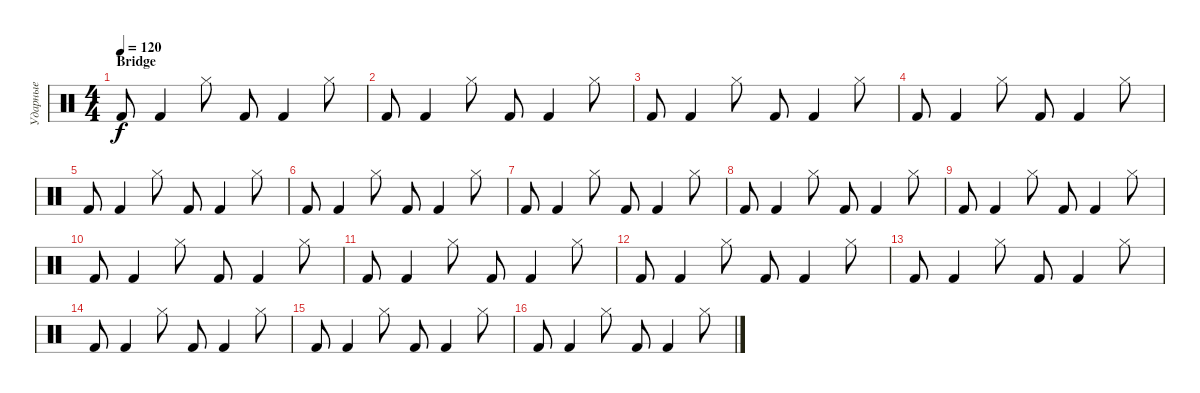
\track ("Ударные" "Ударные") {instrument percussion}
\staff {score}
\articulation defaults
\ts (4 4)
\section ("" "Bridge")
\tempo 120
\clef neutral
\ks c "Kick (hit) 2".8{dy f} "Kick (hit) 2".4 "Hi-Hat (closed)".8 "Kick (hit) 2".8 "Kick (hit) 2".4 "Hi-Hat (closed)".8
|
"Kick (hit) 2".8 "Kick (hit) 2".4 "Hi-Hat (closed)".8 "Kick (hit) 2".8 "Kick (hit) 2".4 "Hi-Hat (closed)".8 |
"Kick (hit) 2".8 "Kick (hit) 2".4 "Hi-Hat (closed)".8 "Kick (hit) 2".8 "Kick (hit) 2".4 "Hi-Hat (closed)".8 |
"Kick (hit) 2".8 "Kick (hit) 2".4 "Hi-Hat (closed)".8 "Kick (hit) 2".8 "Kick (hit) 2".4 "Hi-Hat (closed)".8 |
"Kick (hit) 2".8 "Kick (hit) 2".4 "Hi-Hat (closed)".8 "Kick (hit) 2".8 "Kick (hit) 2".4 "Hi-Hat (closed)".8 |
"Kick (hit) 2".8 "Kick (hit) 2".4 "Hi-Hat (closed)".8 "Kick (hit) 2".8 "Kick (hit) 2".4 "Hi-Hat (closed)".8 |
"Kick (hit) 2".8 "Kick (hit) 2".4 "Hi-Hat (closed)".8 "Kick (hit) 2".8 "Kick (hit) 2".4 "Hi-Hat (closed)".8 |
"Kick (hit) 2".8 "Kick (hit) 2".4 "Hi-Hat (closed)".8 "Kick (hit) 2".8 "Kick (hit) 2".4 "Hi-Hat (closed)".8 |
"Kick (hit) 2".8 "Kick (hit) 2".4 "Hi-Hat (closed)".8 "Kick (hit) 2".8 "Kick (hit) 2".4 "Hi-Hat (closed)".8 |
"Kick (hit) 2".8 "Kick (hit) 2".4 "Hi-Hat (closed)".8 "Kick (hit) 2".8 "Kick (hit) 2".4 "Hi-Hat (closed)".8 |
"Kick (hit) 2".8 "Kick (hit) 2".4 "Hi-Hat (closed)".8 "Kick (hit) 2".8 "Kick (hit) 2".4 "Hi-Hat (closed)".8 |
"Kick (hit) 2".8 "Kick (hit) 2".4 "Hi-Hat (closed)".8 "Kick (hit) 2".8 "Kick (hit) 2".4 "Hi-Hat (closed)".8 |
"Kick (hit) 2".8 "Kick (hit) 2".4 "Hi-Hat (closed)".8 "Kick (hit) 2".8 "Kick (hit) 2".4 "Hi-Hat (closed)".8 |
"Kick (hit) 2".8 "Kick (hit) 2".4 "Hi-Hat (closed)".8 "Kick (hit) 2".8 "Kick (hit) 2".4 "Hi-Hat (closed)".8 |
"Kick (hit) 2".8 "Kick (hit) 2".4 "Hi-Hat (closed)".8 "Kick (hit) 2".8 "Kick (hit) 2".4 "Hi-Hat (closed)".8 |
"Kick (hit) 2".8 "Kick (hit) 2".4 "Hi-Hat (closed)".8 "Kick (hit) 2".8 "Kick (hit) 2".4 "Hi-Hat (closed)".8
